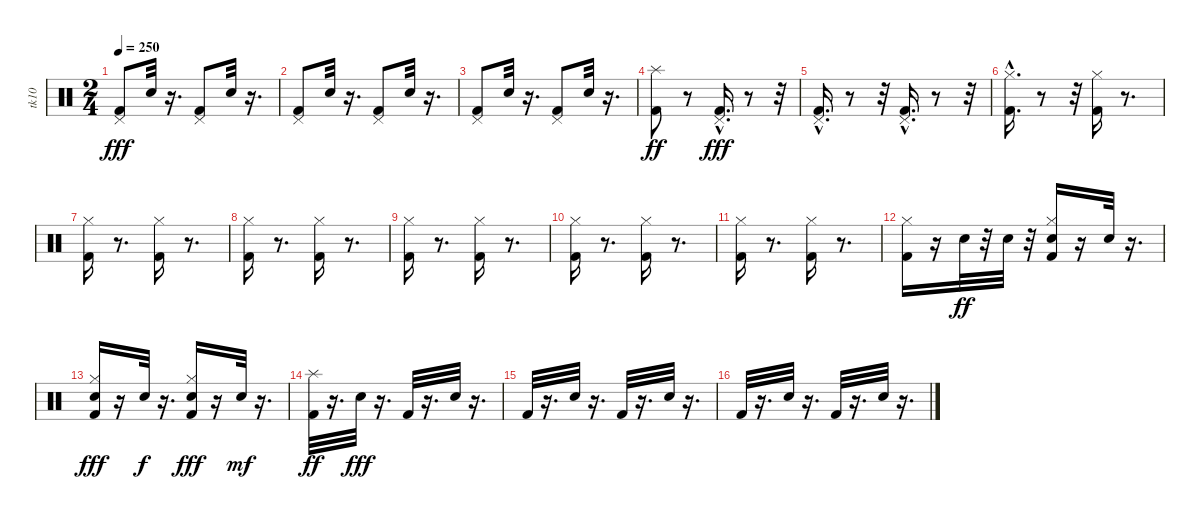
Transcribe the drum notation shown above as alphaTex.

\track ("tk10" "tk10") {instrument percussion}
\staff {score}
\articulation defaults
\ts (2 4)
\tempo 250
\clef neutral
\ks c
("Kick (hit) 2" "Pedal Hi-Hat (hit)").8{dy fff} "Snare (hit) 2".32 r.16{d} ("Kick (hit) 2" "Pedal Hi-Hat (hit)").8 "Snare (hit) 2".32 r.16{d} |
("Kick (hit) 2" "Pedal Hi-Hat (hit)").8 "Snare (hit) 2".32 r.16{d} ("Kick (hit) 2" "Pedal Hi-Hat (hit)").8 "Snare (hit) 2".32 r.16{d} |
("Kick (hit) 2" "Pedal Hi-Hat (hit)").8 "Snare (hit) 2".32 r.16{d} ("Kick (hit) 2" "Pedal Hi-Hat (hit)").8 "Snare (hit) 2".32 r.16{d} |
("Kick (hit) 2" "Splash (hit)").8{dy ff} r.8 ("Kick (hit) 2"{hac} "Pedal Hi-Hat (hit)").16{d dy fff} r.8 r.32 |
("Kick (hit) 2"{hac} "Pedal Hi-Hat (hit)").16{d} r.8 r.32 ("Kick (hit) 2"{hac} "Pedal Hi-Hat (hit)").16{d} r.8 r.32 |
("Hi-Hat (closed)" "Kick (hit) 2"{hac}).16{d} r.8 r.32 ("Kick (hit) 2" "Hi-Hat (closed)").16 r.8{d} |
("Hi-Hat (closed)" "Kick (hit) 2").16 r.8{d} ("Kick (hit) 2" "Hi-Hat (closed)").16 r.8{d} |
("Kick (hit) 2" "Hi-Hat (closed)").16 r.8{d} ("Hi-Hat (closed)" "Kick (hit) 2").16 r.8{d} |
("Kick (hit) 2" "Hi-Hat (closed)").16 r.8{d} ("Kick (hit) 2" "Hi-Hat (closed)").16 r.8{d} |
("Kick (hit) 2" "Hi-Hat (closed)").16 r.8{d} ("Hi-Hat (closed)" "Kick (hit) 2").16 r.8{d} |
("Hi-Hat (closed)" "Kick (hit) 2").16 r.8{d} ("Hi-Hat (closed)" "Kick (hit) 2").16 r.8{d} |
("Hi-Hat (closed)" "Kick (hit) 2").16 r.16 "Electric Snare (hit)".32{dy ff} r.32 "Electric Snare (hit)".32 r.32 ("Hi-Hat (closed)" "Kick (hit) 2" "Electric Snare (hit)").16 r.16 "Electric Snare (hit)".32 r.16{d} |
("Hi-Hat (closed)" "Kick (hit) 2" "Electric Snare (hit)").16{dy fff} r.16 "Electric Snare (hit)".32{dy f} r.16{d} ("Kick (hit) 2" "Hi-Hat (closed)" "Electric Snare (hit)").16{dy fff} r.16 "Electric Snare (hit)".32{dy mf} r.16{d} |
("Kick (hit) 2" "Splash (hit)").32{dy ff} r.16{d} "Snare (hit) 2".32{dy fff} r.16{d} "Kick (hit) 2".32 r.16{d} "Snare (hit) 2".32 r.16{d} |
"Kick (hit) 2".32 r.16{d} "Snare (hit) 2".32 r.16{d} "Kick (hit) 2".32 r.16{d} "Snare (hit) 2".32 r.16{d} |
"Kick (hit) 2".32 r.16{d} "Snare (hit) 2".32 r.16{d} "Kick (hit) 2".32 r.16{d} "Snare (hit) 2".32 r.16{d}
